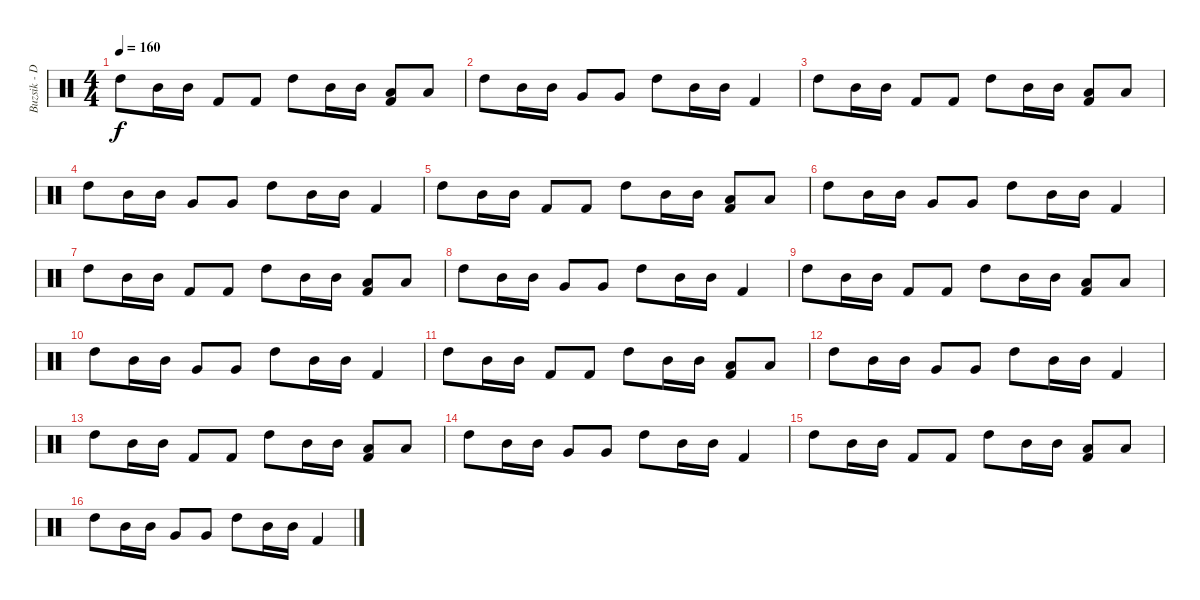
\track ("Buzsik - Dob" "Buzsik - D") {instrument percussion}
\staff {score}
\articulation defaults
\ts (4 4)
\tempo 160
\clef neutral
\ks c "High Tom (hit)".8{dy f} "Mid Tom (hit)".16 "Mid Tom (hit)".16 "Kick (hit) 2".8 "Kick (hit) 2".8 "High Tom (hit)".8 "Mid Tom (hit)".16 "Mid Tom (hit)".16
("Kick (hit) 2" "Low Floor Tom (hit)").8 "Low Floor Tom (hit)".8 |
"High Tom (hit)".8 "Mid Tom (hit)".16 "Mid Tom (hit)".16 "Very Low Tom (hit)".8 "Very Low Tom (hit)".8 "High Tom (hit)".8 "Mid Tom (hit)".16 "Mid Tom (hit)".16 "Kick (hit) 2".4 |
"High Tom (hit)".8 "Mid Tom (hit)".16 "Mid Tom (hit)".16 "Kick (hit) 2".8 "Kick (hit) 2".8 "High Tom (hit)".8 "Mid Tom (hit)".16 "Mid Tom (hit)".16 ("Kick (hit) 2" "Low Floor Tom (hit)").8 "Low Floor Tom (hit)".8 |
"High Tom (hit)".8 "Mid Tom (hit)".16 "Mid Tom (hit)".16 "Very Low Tom (hit)".8 "Very Low Tom (hit)".8 "High Tom (hit)".8 "Mid Tom (hit)".16 "Mid Tom (hit)".16 "Kick (hit) 2".4 |
"High Tom (hit)".8 "Mid Tom (hit)".16 "Mid Tom (hit)".16 "Kick (hit) 2".8 "Kick (hit) 2".8 "High Tom (hit)".8 "Mid Tom (hit)".16 "Mid Tom (hit)".16 ("Kick (hit) 2" "Low Floor Tom (hit)").8 "Low Floor Tom (hit)".8 |
"High Tom (hit)".8 "Mid Tom (hit)".16 "Mid Tom (hit)".16 "Very Low Tom (hit)".8 "Very Low Tom (hit)".8 "High Tom (hit)".8 "Mid Tom (hit)".16 "Mid Tom (hit)".16 "Kick (hit) 2".4 |
"High Tom (hit)".8 "Mid Tom (hit)".16 "Mid Tom (hit)".16 "Kick (hit) 2".8 "Kick (hit) 2".8 "High Tom (hit)".8 "Mid Tom (hit)".16 "Mid Tom (hit)".16 ("Kick (hit) 2" "Low Floor Tom (hit)").8 "Low Floor Tom (hit)".8 |
"High Tom (hit)".8 "Mid Tom (hit)".16 "Mid Tom (hit)".16 "Very Low Tom (hit)".8 "Very Low Tom (hit)".8 "High Tom (hit)".8 "Mid Tom (hit)".16 "Mid Tom (hit)".16 "Kick (hit) 2".4 |
"High Tom (hit)".8 "Mid Tom (hit)".16 "Mid Tom (hit)".16 "Kick (hit) 2".8 "Kick (hit) 2".8 "High Tom (hit)".8 "Mid Tom (hit)".16 "Mid Tom (hit)".16 ("Kick (hit) 2" "Low Floor Tom (hit)").8 "Low Floor Tom (hit)".8 |
"High Tom (hit)".8 "Mid Tom (hit)".16 "Mid Tom (hit)".16 "Very Low Tom (hit)".8 "Very Low Tom (hit)".8 "High Tom (hit)".8 "Mid Tom (hit)".16 "Mid Tom (hit)".16 "Kick (hit) 2".4 |
"High Tom (hit)".8 "Mid Tom (hit)".16 "Mid Tom (hit)".16 "Kick (hit) 2".8 "Kick (hit) 2".8 "High Tom (hit)".8 "Mid Tom (hit)".16 "Mid Tom (hit)".16 ("Kick (hit) 2" "Low Floor Tom (hit)").8 "Low Floor Tom (hit)".8 |
"High Tom (hit)".8 "Mid Tom (hit)".16 "Mid Tom (hit)".16 "Very Low Tom (hit)".8 "Very Low Tom (hit)".8 "High Tom (hit)".8 "Mid Tom (hit)".16 "Mid Tom (hit)".16 "Kick (hit) 2".4 |
"High Tom (hit)".8 "Mid Tom (hit)".16 "Mid Tom (hit)".16 "Kick (hit) 2".8 "Kick (hit) 2".8 "High Tom (hit)".8 "Mid Tom (hit)".16 "Mid Tom (hit)".16 ("Kick (hit) 2" "Low Floor Tom (hit)").8 "Low Floor Tom (hit)".8 |
"High Tom (hit)".8 "Mid Tom (hit)".16 "Mid Tom (hit)".16 "Very Low Tom (hit)".8 "Very Low Tom (hit)".8 "High Tom (hit)".8 "Mid Tom (hit)".16 "Mid Tom (hit)".16 "Kick (hit) 2".4 |
"High Tom (hit)".8 "Mid Tom (hit)".16 "Mid Tom (hit)".16 "Kick (hit) 2".8 "Kick (hit) 2".8 "High Tom (hit)".8 "Mid Tom (hit)".16 "Mid Tom (hit)".16 ("Kick (hit) 2" "Low Floor Tom (hit)").8 "Low Floor Tom (hit)".8 |
"High Tom (hit)".8 "Mid Tom (hit)".16 "Mid Tom (hit)".16 "Very Low Tom (hit)".8 "Very Low Tom (hit)".8 "High Tom (hit)".8 "Mid Tom (hit)".16 "Mid Tom (hit)".16 "Kick (hit) 2".4
